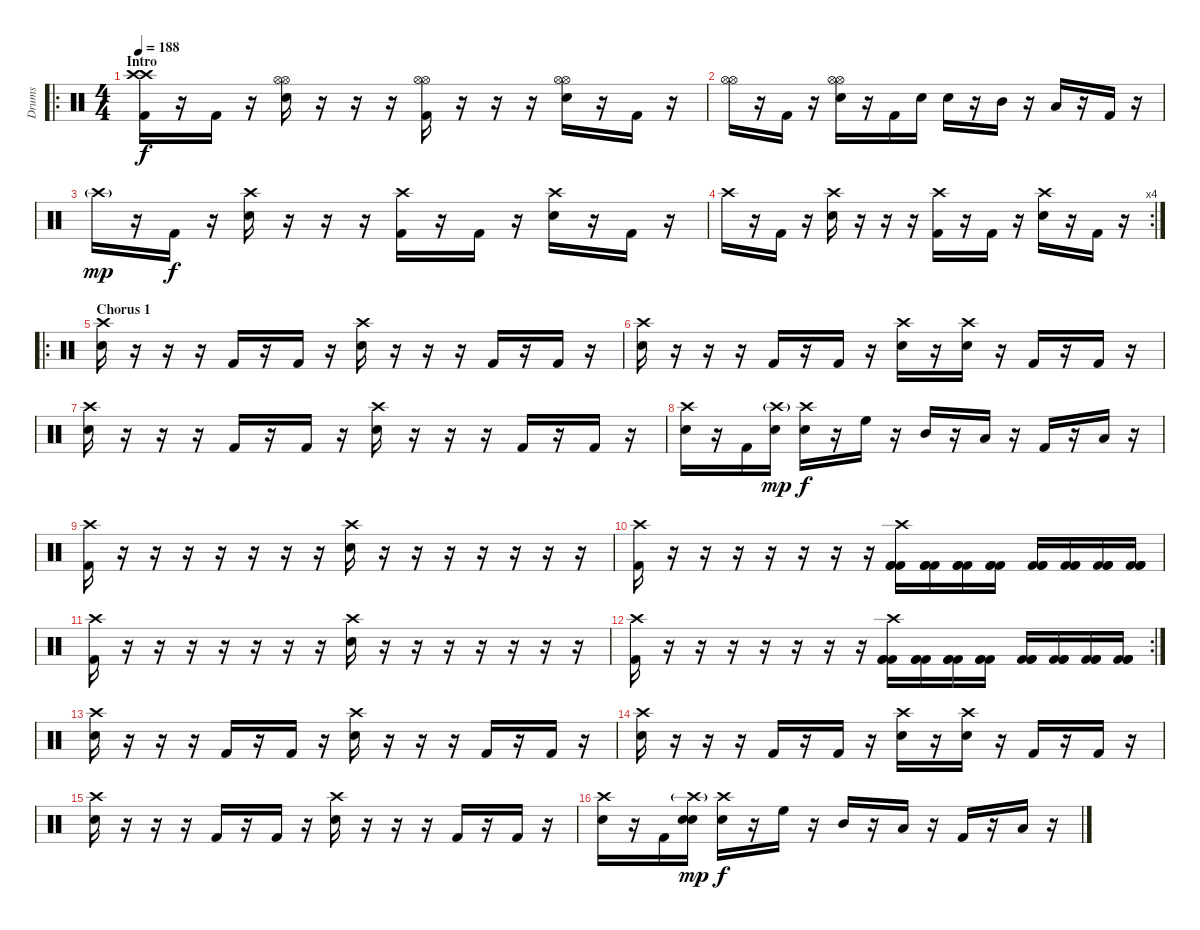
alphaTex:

\track ("Drums" "Drums") {instrument percussion}
\staff {score}
\articulation defaults
\ro
\ts (4 4)
\section ("" "Intro")
\tempo 188
\clef neutral
\ks c
("Crash high (hit)" "Crash high (hit)" "Kick (hit) 2").16{dy f} r.16 "Kick (hit) 2".16 r.16 ("Hi-Hat (open)" "Hi-Hat (open)" "Electric Snare (hit)").16 r.16 r.16 r.16 ("Hi-Hat (open)" "Hi-Hat (open)" "Kick (hit) 2").16 r.16 r.16 r.16 ("Hi-Hat (open)" "Hi-Hat (open)" "Electric Snare (hit)").16 r.16 "Kick (hit) 2".16 r.16 |
("Hi-Hat (open)" "Hi-Hat (open)").16 r.16 "Kick (hit) 2".16 r.16 ("Hi-Hat (open)" "Hi-Hat (open)" "Electric Snare (hit)").16 r.16 "Kick (hit) 2".16 "Electric Snare (hit)".16 "Electric Snare (hit)".16 r.16 "Mid Tom (hit)".16 r.16 "Low Tom (hit)".16 r.16 "Kick (hit) 2".16 r.16 |
"Crash high (hit)"{g}.16{dy mp} r.16 "Kick (hit) 2".16{dy f} r.16 ("Crash high (hit)" "Electric Snare (hit)").16 r.16 r.16 r.16 ("Crash high (hit)" "Kick (hit) 2").16 r.16 "Kick (hit) 2".16 r.16 ("Crash high (hit)" "Electric Snare (hit)").16 r.16 "Kick (hit) 2".16 r.16 |
\rc 4 "Crash high (hit)".16
r.16 "Kick (hit) 2".16 r.16 ("Crash high (hit)" "Electric Snare (hit)").16 r.16 r.16 r.16 ("Crash high (hit)" "Kick (hit) 2").16 r.16 "Kick (hit) 2".16 r.16 ("Crash high (hit)" "Electric Snare (hit)").16 r.16 "Kick (hit) 2".16 r.16 |
\ro
\section ("" "Chorus 1")
("Crash high (hit)" "Electric Snare (hit)").16 r.16 r.16 r.16 "Kick (hit) 2".16 r.16 "Kick (hit) 2".16 r.16 ("Crash high (hit)" "Electric Snare (hit)").16 r.16 r.16 r.16 "Kick (hit) 2".16 r.16 "Kick (hit) 2".16 r.16 |
("Crash high (hit)" "Electric Snare (hit)").16 r.16 r.16 r.16 "Kick (hit) 2".16 r.16 "Kick (hit) 2".16 r.16 ("Crash high (hit)" "Electric Snare (hit)").16 r.16 ("Crash high (hit)" "Electric Snare (hit)").16 r.16 "Kick (hit) 2".16 r.16 "Kick (hit) 2".16 r.16 |
("Crash high (hit)" "Electric Snare (hit)").16 r.16 r.16 r.16 "Kick (hit) 2".16 r.16 "Kick (hit) 2".16 r.16 ("Crash high (hit)" "Electric Snare (hit)").16 r.16 r.16 r.16 "Kick (hit) 2".16 r.16 "Kick (hit) 2".16 r.16 |
("Crash high (hit)" "Electric Snare (hit)").16 r.16 "Kick (hit) 2".16 ("Crash high (hit)"{g} "Electric Snare (hit)").16{dy mp} ("Crash high (hit)" "Electric Snare (hit)").16{dy f} r.16 "High Floor Tom (hit)".16 r.16 "Mid Tom (hit)".16 r.16 "Low Tom (hit)".16 r.16 "Kick (hit) 2".16 r.16 "Low Tom (hit)".16 r.16 |
("Crash high (hit)" "Kick (hit) 2").16 r.16 r.16 r.16 r.16 r.16 r.16 r.16 ("Crash high (hit)" "Electric Snare (hit)").16 r.16 r.16 r.16 r.16 r.16 r.16 r.16 |
("Crash high (hit)" "Kick (hit) 2").16 r.16 r.16 r.16 r.16 r.16 r.16 r.16 ("Crash high (hit)" "Kick (hit) 2" "Kick (hit) 2" "Kick (hit) 2").16 ("Kick (hit) 2" "Kick (hit) 2" "Kick (hit) 2").16 ("Kick (hit) 2" "Kick (hit) 2" "Kick (hit) 2").16 ("Kick (hit) 2" "Kick (hit) 2" "Kick (hit) 2").16 ("Kick (hit) 2" "Kick (hit) 2" "Kick (hit) 2").16 ("Kick (hit) 2" "Kick (hit) 2" "Kick (hit) 2").16 ("Kick (hit) 2" "Kick (hit) 2" "Kick (hit) 2").16 ("Kick (hit) 2" "Kick (hit) 2" "Kick (hit) 2").16 |
("Crash high (hit)" "Kick (hit) 2").16 r.16 r.16 r.16 r.16 r.16 r.16 r.16 ("Crash high (hit)" "Electric Snare (hit)").16 r.16 r.16 r.16 r.16 r.16 r.16 r.16 |
\rc 2
("Crash high (hit)" "Kick (hit) 2").16 r.16 r.16 r.16 r.16 r.16 r.16 r.16 ("Crash high (hit)" "Kick (hit) 2" "Kick (hit) 2" "Kick (hit) 2").16 ("Kick (hit) 2" "Kick (hit) 2" "Kick (hit) 2").16 ("Kick (hit) 2" "Kick (hit) 2" "Kick (hit) 2").16 ("Kick (hit) 2" "Kick (hit) 2" "Kick (hit) 2").16 ("Kick (hit) 2" "Kick (hit) 2" "Kick (hit) 2").16 ("Kick (hit) 2" "Kick (hit) 2" "Kick (hit) 2").16 ("Kick (hit) 2" "Kick (hit) 2" "Kick (hit) 2").16 ("Kick (hit) 2" "Kick (hit) 2" "Kick (hit) 2").16 |
("Crash high (hit)" "Electric Snare (hit)").16 r.16 r.16 r.16 "Kick (hit) 2".16 r.16 "Kick (hit) 2".16 r.16 ("Crash high (hit)" "Electric Snare (hit)").16 r.16 r.16 r.16 "Kick (hit) 2".16 r.16 "Kick (hit) 2".16 r.16 |
("Crash high (hit)" "Electric Snare (hit)").16 r.16 r.16 r.16 "Kick (hit) 2".16 r.16 "Kick (hit) 2".16 r.16 ("Crash high (hit)" "Electric Snare (hit)").16 r.16 ("Crash high (hit)" "Electric Snare (hit)").16 r.16 "Kick (hit) 2".16 r.16 "Kick (hit) 2".16 r.16 |
("Crash high (hit)" "Electric Snare (hit)").16 r.16 r.16 r.16 "Kick (hit) 2".16 r.16 "Kick (hit) 2".16 r.16 ("Crash high (hit)" "Electric Snare (hit)").16 r.16 r.16 r.16 "Kick (hit) 2".16 r.16 "Kick (hit) 2".16 r.16 |
("Crash high (hit)" "Electric Snare (hit)").16 r.16 "Kick (hit) 2".16 ("Crash high (hit)"{g} "Electric Snare (hit)" "Electric Snare (hit)").16{dy mp} ("Crash high (hit)" "Electric Snare (hit)").16{dy f} r.16 "High Floor Tom (hit)".16 r.16 "Mid Tom (hit)".16 r.16 "Low Tom (hit)".16 r.16 "Kick (hit) 2".16 r.16 "Low Tom (hit)".16 r.16
